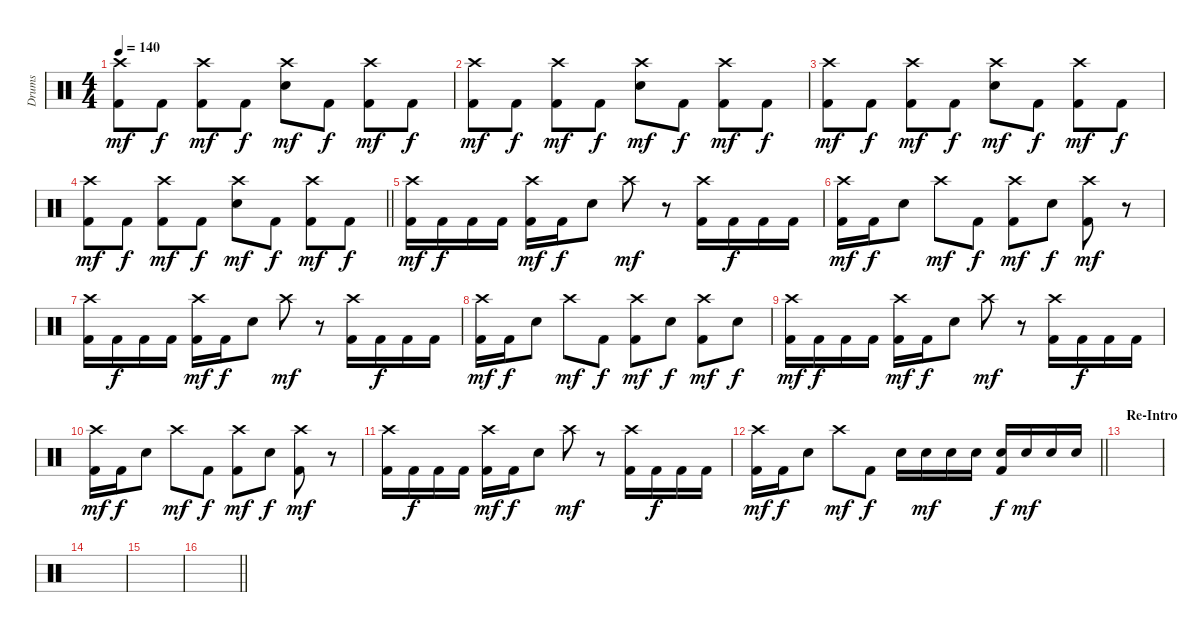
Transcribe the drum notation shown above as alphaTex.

\track ("Drums" "Drums") {instrument percussion}
\staff {score}
\articulation defaults
\ts (4 4)
\tempo 140
\clef neutral
\ks c
("Crash high (hit)" "Kick (hit) 2").8{dy mf} "Kick (hit) 2".8{dy f} ("Crash high (hit)" "Kick (hit) 2").8{dy mf} "Kick (hit) 2".8{dy f} ("Crash high (hit)" "Snare (hit) 2").8{dy mf} "Kick (hit) 2".8{dy f} ("Crash high (hit)" "Kick (hit) 2").8{dy mf} "Kick (hit) 2".8{dy f} |
("Crash high (hit)" "Kick (hit) 2").8{dy mf} "Kick (hit) 2".8{dy f} ("Crash high (hit)" "Kick (hit) 2").8{dy mf} "Kick (hit) 2".8{dy f} ("Crash high (hit)" "Snare (hit) 2").8{dy mf} "Kick (hit) 2".8{dy f} ("Crash high (hit)" "Kick (hit) 2").8{dy mf} "Kick (hit) 2".8{dy f} |
("Crash high (hit)" "Kick (hit) 2").8{dy mf} "Kick (hit) 2".8{dy f} ("Crash high (hit)" "Kick (hit) 2").8{dy mf} "Kick (hit) 2".8{dy f} ("Crash high (hit)" "Snare (hit) 2").8{dy mf} "Kick (hit) 2".8{dy f} ("Crash high (hit)" "Kick (hit) 2").8{dy mf} "Kick (hit) 2".8{dy f} |
\barLineRight lightlight
("Crash high (hit)" "Kick (hit) 2").8{dy mf} "Kick (hit) 2".8{dy f} ("Crash high (hit)" "Kick (hit) 2").8{dy mf} "Kick (hit) 2".8{dy f} ("Crash high (hit)" "Snare (hit) 2").8{dy mf} "Kick (hit) 2".8{dy f} ("Crash high (hit)" "Kick (hit) 2").8{dy mf} "Kick (hit) 2".8{dy f} |
("Crash high (hit)" "Kick (hit) 2").16{dy mf} "Kick (hit) 2".16{dy f} "Kick (hit) 2".16 "Kick (hit) 2".16 ("Crash high (hit)" "Kick (hit) 2").16{dy mf} "Kick (hit) 2".16{dy f} "Snare (hit) 2".8 "Crash high (hit)".8{dy mf} r.8 ("Crash high (hit)" "Kick (hit) 2").16 "Kick (hit) 2".16{dy f} "Kick (hit) 2".16 "Kick (hit) 2".16 |
("Crash high (hit)" "Kick (hit) 2").16{dy mf} "Kick (hit) 2".16{dy f} "Snare (hit) 2".8 "Crash high (hit)".8{dy mf} "Kick (hit) 2".8{dy f} ("Crash high (hit)" "Kick (hit) 2").8{dy mf} "Snare (hit) 2".8{dy f} ("Crash high (hit)" "Kick (hit) 2").8{dy mf} r.8 |
("Crash high (hit)" "Kick (hit) 2").16 "Kick (hit) 2".16{dy f} "Kick (hit) 2".16 "Kick (hit) 2".16 ("Crash high (hit)" "Kick (hit) 2").16{dy mf} "Kick (hit) 2".16{dy f} "Snare (hit) 2".8 "Crash high (hit)".8{dy mf} r.8 ("Crash high (hit)" "Kick (hit) 2").16 "Kick (hit) 2".16{dy f} "Kick (hit) 2".16 "Kick (hit) 2".16 |
("Crash high (hit)" "Kick (hit) 2").16{dy mf} "Kick (hit) 2".16{dy f} "Snare (hit) 2".8 "Crash high (hit)".8{dy mf} "Kick (hit) 2".8{dy f} ("Crash high (hit)" "Kick (hit) 2").8{dy mf} "Snare (hit) 2".8{dy f} ("Crash high (hit)" "Kick (hit) 2").8{dy mf} "Snare (hit) 2".8{dy f} |
("Crash high (hit)" "Kick (hit) 2").16{dy mf} "Kick (hit) 2".16{dy f} "Kick (hit) 2".16 "Kick (hit) 2".16 ("Crash high (hit)" "Kick (hit) 2").16{dy mf} "Kick (hit) 2".16{dy f} "Snare (hit) 2".8 "Crash high (hit)".8{dy mf} r.8 ("Crash high (hit)" "Kick (hit) 2").16 "Kick (hit) 2".16{dy f} "Kick (hit) 2".16 "Kick (hit) 2".16 |
("Crash high (hit)" "Kick (hit) 2").16{dy mf} "Kick (hit) 2".16{dy f} "Snare (hit) 2".8 "Crash high (hit)".8{dy mf} "Kick (hit) 2".8{dy f} ("Crash high (hit)" "Kick (hit) 2").8{dy mf} "Snare (hit) 2".8{dy f} ("Crash high (hit)" "Kick (hit) 2").8{dy mf} r.8 |
("Crash high (hit)" "Kick (hit) 2").16 "Kick (hit) 2".16{dy f} "Kick (hit) 2".16 "Kick (hit) 2".16 ("Crash high (hit)" "Kick (hit) 2").16{dy mf} "Kick (hit) 2".16{dy f} "Snare (hit) 2".8 "Crash high (hit)".8{dy mf} r.8 ("Crash high (hit)" "Kick (hit) 2").16 "Kick (hit) 2".16{dy f} "Kick (hit) 2".16 "Kick (hit) 2".16 |
\barLineRight lightlight
("Crash high (hit)" "Kick (hit) 2").16{dy mf} "Kick (hit) 2".16{dy f} "Snare (hit) 2".8 "Crash high (hit)".8{dy mf} "Kick (hit) 2".8{dy f} "Snare (hit) 2".16 "Snare (hit) 2".16{dy mf} "Snare (hit) 2".16 "Snare (hit) 2".16 ("Snare (hit) 2" "Kick (hit) 2").16{dy f} "Snare (hit) 2".16{dy mf} "Snare (hit) 2".16 "Snare (hit) 2".16 |
\section ("" "Re-Intro")
|
|
|
\barLineRight lightlight
